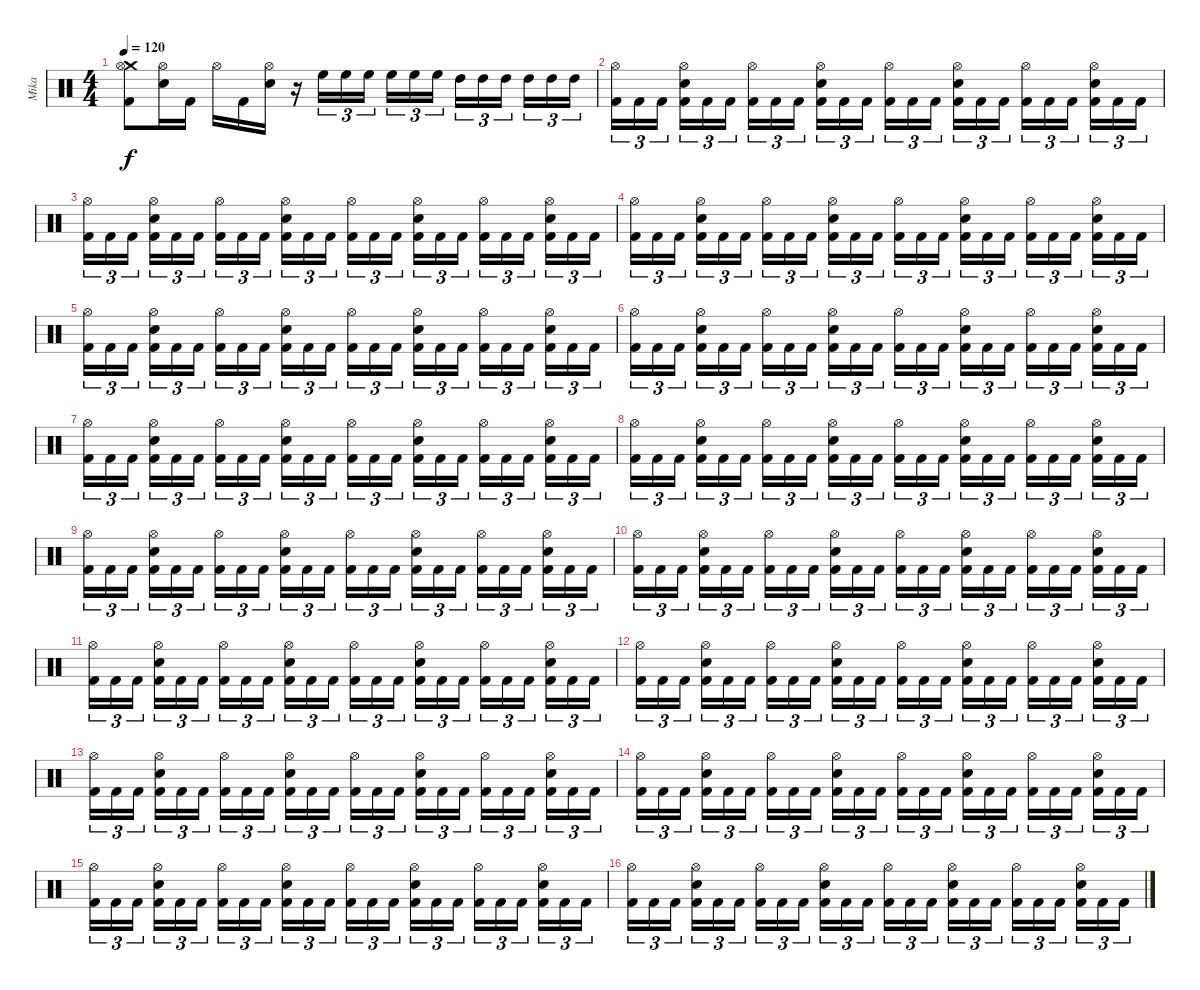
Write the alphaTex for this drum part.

\track ("Mika" "Mika") {instrument percussion}
\staff {score}
\articulation defaults
\ts (4 4)
\tempo 120
\clef neutral
\ks c
("Crash medium (hit)" "Hi-Hat (open)" "Kick (hit) 2").8{dy f} ("Hi-Hat (open)" "Electric Snare (hit)").16 "Kick (hit) 2".16 "Hi-Hat (open)".16 "Kick (hit) 2".16 ("Hi-Hat (open)" "Electric Snare (hit)").16 r.16 "High Floor Tom (hit)".16{tu (3 2)} "High Floor Tom (hit)".16{tu (3 2)} "High Floor Tom (hit)".16{tu (3 2) beam splitsecondary} "High Floor Tom (hit)".16{tu (3 2)} "High Floor Tom (hit)".16{tu (3 2)} "High Floor Tom (hit)".16{tu (3 2)} "High Tom (hit)".16{tu (3 2)} "High Tom (hit)".16{tu (3 2)} "High Tom (hit)".16{tu (3 2) beam splitsecondary} "High Tom (hit)".16{tu (3 2)} "High Tom (hit)".16{tu (3 2)} "High Tom (hit)".16{tu (3 2)} |
("Hi-Hat (open)" "Kick (hit) 2").16{tu (3 2)} "Kick (hit) 2".16{tu (3 2)} "Kick (hit) 2".16{tu (3 2) beam splitsecondary} ("Hi-Hat (open)" "Electric Snare (hit)" "Kick (hit) 2").16{tu (3 2)} "Kick (hit) 2".16{tu (3 2)} "Kick (hit) 2".16{tu (3 2)} ("Hi-Hat (open)" "Kick (hit) 2").16{tu (3 2)} "Kick (hit) 2".16{tu (3 2)} "Kick (hit) 2".16{tu (3 2) beam splitsecondary} ("Hi-Hat (open)" "Electric Snare (hit)" "Kick (hit) 2").16{tu (3 2)} "Kick (hit) 2".16{tu (3 2)} "Kick (hit) 2".16{tu (3 2)} ("Hi-Hat (open)" "Kick (hit) 2").16{tu (3 2)} "Kick (hit) 2".16{tu (3 2)} "Kick (hit) 2".16{tu (3 2) beam splitsecondary} ("Hi-Hat (open)" "Electric Snare (hit)" "Kick (hit) 2").16{tu (3 2)} "Kick (hit) 2".16{tu (3 2)} "Kick (hit) 2".16{tu (3 2)} ("Hi-Hat (open)" "Kick (hit) 2").16{tu (3 2)} "Kick (hit) 2".16{tu (3 2)} "Kick (hit) 2".16{tu (3 2) beam splitsecondary} ("Hi-Hat (open)" "Electric Snare (hit)" "Kick (hit) 2").16{tu (3 2)} "Kick (hit) 2".16{tu (3 2)} "Kick (hit) 2".16{tu (3 2)} |
("Hi-Hat (open)" "Kick (hit) 2").16{tu (3 2)} "Kick (hit) 2".16{tu (3 2)} "Kick (hit) 2".16{tu (3 2) beam splitsecondary} ("Hi-Hat (open)" "Electric Snare (hit)" "Kick (hit) 2").16{tu (3 2)} "Kick (hit) 2".16{tu (3 2)} "Kick (hit) 2".16{tu (3 2)} ("Hi-Hat (open)" "Kick (hit) 2").16{tu (3 2)} "Kick (hit) 2".16{tu (3 2)} "Kick (hit) 2".16{tu (3 2) beam splitsecondary} ("Hi-Hat (open)" "Electric Snare (hit)" "Kick (hit) 2").16{tu (3 2)} "Kick (hit) 2".16{tu (3 2)} "Kick (hit) 2".16{tu (3 2)} ("Hi-Hat (open)" "Kick (hit) 2").16{tu (3 2)} "Kick (hit) 2".16{tu (3 2)} "Kick (hit) 2".16{tu (3 2) beam splitsecondary} ("Hi-Hat (open)" "Electric Snare (hit)" "Kick (hit) 2").16{tu (3 2)} "Kick (hit) 2".16{tu (3 2)} "Kick (hit) 2".16{tu (3 2)} ("Hi-Hat (open)" "Kick (hit) 2").16{tu (3 2)} "Kick (hit) 2".16{tu (3 2)} "Kick (hit) 2".16{tu (3 2) beam splitsecondary} ("Hi-Hat (open)" "Electric Snare (hit)" "Kick (hit) 2").16{tu (3 2)} "Kick (hit) 2".16{tu (3 2)} "Kick (hit) 2".16{tu (3 2)} |
("Hi-Hat (open)" "Kick (hit) 2").16{tu (3 2)} "Kick (hit) 2".16{tu (3 2)} "Kick (hit) 2".16{tu (3 2) beam splitsecondary} ("Hi-Hat (open)" "Electric Snare (hit)" "Kick (hit) 2").16{tu (3 2)} "Kick (hit) 2".16{tu (3 2)} "Kick (hit) 2".16{tu (3 2)} ("Hi-Hat (open)" "Kick (hit) 2").16{tu (3 2)} "Kick (hit) 2".16{tu (3 2)} "Kick (hit) 2".16{tu (3 2) beam splitsecondary} ("Hi-Hat (open)" "Electric Snare (hit)" "Kick (hit) 2").16{tu (3 2)} "Kick (hit) 2".16{tu (3 2)} "Kick (hit) 2".16{tu (3 2)} ("Hi-Hat (open)" "Kick (hit) 2").16{tu (3 2)} "Kick (hit) 2".16{tu (3 2)} "Kick (hit) 2".16{tu (3 2) beam splitsecondary} ("Hi-Hat (open)" "Electric Snare (hit)" "Kick (hit) 2").16{tu (3 2)} "Kick (hit) 2".16{tu (3 2)} "Kick (hit) 2".16{tu (3 2)} ("Hi-Hat (open)" "Kick (hit) 2").16{tu (3 2)} "Kick (hit) 2".16{tu (3 2)} "Kick (hit) 2".16{tu (3 2) beam splitsecondary} ("Hi-Hat (open)" "Electric Snare (hit)" "Kick (hit) 2").16{tu (3 2)} "Kick (hit) 2".16{tu (3 2)} "Kick (hit) 2".16{tu (3 2)} |
("Hi-Hat (open)" "Kick (hit) 2").16{tu (3 2)} "Kick (hit) 2".16{tu (3 2)} "Kick (hit) 2".16{tu (3 2) beam splitsecondary} ("Hi-Hat (open)" "Electric Snare (hit)" "Kick (hit) 2").16{tu (3 2)} "Kick (hit) 2".16{tu (3 2)} "Kick (hit) 2".16{tu (3 2)} ("Hi-Hat (open)" "Kick (hit) 2").16{tu (3 2)} "Kick (hit) 2".16{tu (3 2)} "Kick (hit) 2".16{tu (3 2) beam splitsecondary} ("Hi-Hat (open)" "Electric Snare (hit)" "Kick (hit) 2").16{tu (3 2)} "Kick (hit) 2".16{tu (3 2)} "Kick (hit) 2".16{tu (3 2)} ("Hi-Hat (open)" "Kick (hit) 2").16{tu (3 2)} "Kick (hit) 2".16{tu (3 2)} "Kick (hit) 2".16{tu (3 2) beam splitsecondary} ("Hi-Hat (open)" "Electric Snare (hit)" "Kick (hit) 2").16{tu (3 2)} "Kick (hit) 2".16{tu (3 2)} "Kick (hit) 2".16{tu (3 2)} ("Hi-Hat (open)" "Kick (hit) 2").16{tu (3 2)} "Kick (hit) 2".16{tu (3 2)} "Kick (hit) 2".16{tu (3 2) beam splitsecondary} ("Hi-Hat (open)" "Electric Snare (hit)" "Kick (hit) 2").16{tu (3 2)} "Kick (hit) 2".16{tu (3 2)} "Kick (hit) 2".16{tu (3 2)} |
("Hi-Hat (open)" "Kick (hit) 2").16{tu (3 2)} "Kick (hit) 2".16{tu (3 2)} "Kick (hit) 2".16{tu (3 2) beam splitsecondary} ("Hi-Hat (open)" "Electric Snare (hit)" "Kick (hit) 2").16{tu (3 2)} "Kick (hit) 2".16{tu (3 2)} "Kick (hit) 2".16{tu (3 2)} ("Hi-Hat (open)" "Kick (hit) 2").16{tu (3 2)} "Kick (hit) 2".16{tu (3 2)} "Kick (hit) 2".16{tu (3 2) beam splitsecondary} ("Hi-Hat (open)" "Electric Snare (hit)" "Kick (hit) 2").16{tu (3 2)} "Kick (hit) 2".16{tu (3 2)} "Kick (hit) 2".16{tu (3 2)} ("Hi-Hat (open)" "Kick (hit) 2").16{tu (3 2)} "Kick (hit) 2".16{tu (3 2)} "Kick (hit) 2".16{tu (3 2) beam splitsecondary} ("Hi-Hat (open)" "Electric Snare (hit)" "Kick (hit) 2").16{tu (3 2)} "Kick (hit) 2".16{tu (3 2)} "Kick (hit) 2".16{tu (3 2)} ("Hi-Hat (open)" "Kick (hit) 2").16{tu (3 2)} "Kick (hit) 2".16{tu (3 2)} "Kick (hit) 2".16{tu (3 2) beam splitsecondary} ("Hi-Hat (open)" "Electric Snare (hit)" "Kick (hit) 2").16{tu (3 2)} "Kick (hit) 2".16{tu (3 2)} "Kick (hit) 2".16{tu (3 2)} |
("Hi-Hat (open)" "Kick (hit) 2").16{tu (3 2)} "Kick (hit) 2".16{tu (3 2)} "Kick (hit) 2".16{tu (3 2) beam splitsecondary} ("Hi-Hat (open)" "Electric Snare (hit)" "Kick (hit) 2").16{tu (3 2)} "Kick (hit) 2".16{tu (3 2)} "Kick (hit) 2".16{tu (3 2)} ("Hi-Hat (open)" "Kick (hit) 2").16{tu (3 2)} "Kick (hit) 2".16{tu (3 2)} "Kick (hit) 2".16{tu (3 2) beam splitsecondary} ("Hi-Hat (open)" "Electric Snare (hit)" "Kick (hit) 2").16{tu (3 2)} "Kick (hit) 2".16{tu (3 2)} "Kick (hit) 2".16{tu (3 2)} ("Hi-Hat (open)" "Kick (hit) 2").16{tu (3 2)} "Kick (hit) 2".16{tu (3 2)} "Kick (hit) 2".16{tu (3 2) beam splitsecondary} ("Hi-Hat (open)" "Electric Snare (hit)" "Kick (hit) 2").16{tu (3 2)} "Kick (hit) 2".16{tu (3 2)} "Kick (hit) 2".16{tu (3 2)} ("Hi-Hat (open)" "Kick (hit) 2").16{tu (3 2)} "Kick (hit) 2".16{tu (3 2)} "Kick (hit) 2".16{tu (3 2) beam splitsecondary} ("Hi-Hat (open)" "Electric Snare (hit)" "Kick (hit) 2").16{tu (3 2)} "Kick (hit) 2".16{tu (3 2)} "Kick (hit) 2".16{tu (3 2)} |
("Hi-Hat (open)" "Kick (hit) 2").16{tu (3 2)} "Kick (hit) 2".16{tu (3 2)} "Kick (hit) 2".16{tu (3 2) beam splitsecondary} ("Hi-Hat (open)" "Electric Snare (hit)" "Kick (hit) 2").16{tu (3 2)} "Kick (hit) 2".16{tu (3 2)} "Kick (hit) 2".16{tu (3 2)} ("Hi-Hat (open)" "Kick (hit) 2").16{tu (3 2)} "Kick (hit) 2".16{tu (3 2)} "Kick (hit) 2".16{tu (3 2) beam splitsecondary} ("Hi-Hat (open)" "Electric Snare (hit)" "Kick (hit) 2").16{tu (3 2)} "Kick (hit) 2".16{tu (3 2)} "Kick (hit) 2".16{tu (3 2)} ("Hi-Hat (open)" "Kick (hit) 2").16{tu (3 2)} "Kick (hit) 2".16{tu (3 2)} "Kick (hit) 2".16{tu (3 2) beam splitsecondary} ("Hi-Hat (open)" "Electric Snare (hit)" "Kick (hit) 2").16{tu (3 2)} "Kick (hit) 2".16{tu (3 2)} "Kick (hit) 2".16{tu (3 2)} ("Hi-Hat (open)" "Kick (hit) 2").16{tu (3 2)} "Kick (hit) 2".16{tu (3 2)} "Kick (hit) 2".16{tu (3 2) beam splitsecondary} ("Hi-Hat (open)" "Electric Snare (hit)" "Kick (hit) 2").16{tu (3 2)} "Kick (hit) 2".16{tu (3 2)} "Kick (hit) 2".16{tu (3 2)} |
("Hi-Hat (open)" "Kick (hit) 2").16{tu (3 2)} "Kick (hit) 2".16{tu (3 2)} "Kick (hit) 2".16{tu (3 2) beam splitsecondary} ("Hi-Hat (open)" "Electric Snare (hit)" "Kick (hit) 2").16{tu (3 2)} "Kick (hit) 2".16{tu (3 2)} "Kick (hit) 2".16{tu (3 2)} ("Hi-Hat (open)" "Kick (hit) 2").16{tu (3 2)} "Kick (hit) 2".16{tu (3 2)} "Kick (hit) 2".16{tu (3 2) beam splitsecondary} ("Hi-Hat (open)" "Electric Snare (hit)" "Kick (hit) 2").16{tu (3 2)} "Kick (hit) 2".16{tu (3 2)} "Kick (hit) 2".16{tu (3 2)} ("Hi-Hat (open)" "Kick (hit) 2").16{tu (3 2)} "Kick (hit) 2".16{tu (3 2)} "Kick (hit) 2".16{tu (3 2) beam splitsecondary} ("Hi-Hat (open)" "Electric Snare (hit)" "Kick (hit) 2").16{tu (3 2)} "Kick (hit) 2".16{tu (3 2)} "Kick (hit) 2".16{tu (3 2)} ("Hi-Hat (open)" "Kick (hit) 2").16{tu (3 2)} "Kick (hit) 2".16{tu (3 2)} "Kick (hit) 2".16{tu (3 2) beam splitsecondary} ("Hi-Hat (open)" "Electric Snare (hit)" "Kick (hit) 2").16{tu (3 2)} "Kick (hit) 2".16{tu (3 2)} "Kick (hit) 2".16{tu (3 2)} |
("Hi-Hat (open)" "Kick (hit) 2").16{tu (3 2)} "Kick (hit) 2".16{tu (3 2)} "Kick (hit) 2".16{tu (3 2) beam splitsecondary} ("Hi-Hat (open)" "Electric Snare (hit)" "Kick (hit) 2").16{tu (3 2)} "Kick (hit) 2".16{tu (3 2)} "Kick (hit) 2".16{tu (3 2)} ("Hi-Hat (open)" "Kick (hit) 2").16{tu (3 2)} "Kick (hit) 2".16{tu (3 2)} "Kick (hit) 2".16{tu (3 2) beam splitsecondary} ("Hi-Hat (open)" "Electric Snare (hit)" "Kick (hit) 2").16{tu (3 2)} "Kick (hit) 2".16{tu (3 2)} "Kick (hit) 2".16{tu (3 2)} ("Hi-Hat (open)" "Kick (hit) 2").16{tu (3 2)} "Kick (hit) 2".16{tu (3 2)} "Kick (hit) 2".16{tu (3 2) beam splitsecondary} ("Hi-Hat (open)" "Electric Snare (hit)" "Kick (hit) 2").16{tu (3 2)} "Kick (hit) 2".16{tu (3 2)} "Kick (hit) 2".16{tu (3 2)} ("Hi-Hat (open)" "Kick (hit) 2").16{tu (3 2)} "Kick (hit) 2".16{tu (3 2)} "Kick (hit) 2".16{tu (3 2) beam splitsecondary} ("Hi-Hat (open)" "Electric Snare (hit)" "Kick (hit) 2").16{tu (3 2)} "Kick (hit) 2".16{tu (3 2)} "Kick (hit) 2".16{tu (3 2)} |
("Hi-Hat (open)" "Kick (hit) 2").16{tu (3 2)} "Kick (hit) 2".16{tu (3 2)} "Kick (hit) 2".16{tu (3 2) beam splitsecondary} ("Hi-Hat (open)" "Electric Snare (hit)" "Kick (hit) 2").16{tu (3 2)} "Kick (hit) 2".16{tu (3 2)} "Kick (hit) 2".16{tu (3 2)} ("Hi-Hat (open)" "Kick (hit) 2").16{tu (3 2)} "Kick (hit) 2".16{tu (3 2)} "Kick (hit) 2".16{tu (3 2) beam splitsecondary} ("Hi-Hat (open)" "Electric Snare (hit)" "Kick (hit) 2").16{tu (3 2)} "Kick (hit) 2".16{tu (3 2)} "Kick (hit) 2".16{tu (3 2)} ("Hi-Hat (open)" "Kick (hit) 2").16{tu (3 2)} "Kick (hit) 2".16{tu (3 2)} "Kick (hit) 2".16{tu (3 2) beam splitsecondary} ("Hi-Hat (open)" "Electric Snare (hit)" "Kick (hit) 2").16{tu (3 2)} "Kick (hit) 2".16{tu (3 2)} "Kick (hit) 2".16{tu (3 2)} ("Hi-Hat (open)" "Kick (hit) 2").16{tu (3 2)} "Kick (hit) 2".16{tu (3 2)} "Kick (hit) 2".16{tu (3 2) beam splitsecondary} ("Hi-Hat (open)" "Electric Snare (hit)" "Kick (hit) 2").16{tu (3 2)} "Kick (hit) 2".16{tu (3 2)} "Kick (hit) 2".16{tu (3 2)} |
("Hi-Hat (open)" "Kick (hit) 2").16{tu (3 2)} "Kick (hit) 2".16{tu (3 2)} "Kick (hit) 2".16{tu (3 2) beam splitsecondary} ("Hi-Hat (open)" "Electric Snare (hit)" "Kick (hit) 2").16{tu (3 2)} "Kick (hit) 2".16{tu (3 2)} "Kick (hit) 2".16{tu (3 2)} ("Hi-Hat (open)" "Kick (hit) 2").16{tu (3 2)} "Kick (hit) 2".16{tu (3 2)} "Kick (hit) 2".16{tu (3 2) beam splitsecondary} ("Hi-Hat (open)" "Electric Snare (hit)" "Kick (hit) 2").16{tu (3 2)} "Kick (hit) 2".16{tu (3 2)} "Kick (hit) 2".16{tu (3 2)} ("Hi-Hat (open)" "Kick (hit) 2").16{tu (3 2)} "Kick (hit) 2".16{tu (3 2)} "Kick (hit) 2".16{tu (3 2) beam splitsecondary} ("Hi-Hat (open)" "Electric Snare (hit)" "Kick (hit) 2").16{tu (3 2)} "Kick (hit) 2".16{tu (3 2)} "Kick (hit) 2".16{tu (3 2)} ("Hi-Hat (open)" "Kick (hit) 2").16{tu (3 2)} "Kick (hit) 2".16{tu (3 2)} "Kick (hit) 2".16{tu (3 2) beam splitsecondary} ("Hi-Hat (open)" "Electric Snare (hit)" "Kick (hit) 2").16{tu (3 2)} "Kick (hit) 2".16{tu (3 2)} "Kick (hit) 2".16{tu (3 2)} |
("Hi-Hat (open)" "Kick (hit) 2").16{tu (3 2)} "Kick (hit) 2".16{tu (3 2)} "Kick (hit) 2".16{tu (3 2) beam splitsecondary} ("Hi-Hat (open)" "Electric Snare (hit)" "Kick (hit) 2").16{tu (3 2)} "Kick (hit) 2".16{tu (3 2)} "Kick (hit) 2".16{tu (3 2)} ("Hi-Hat (open)" "Kick (hit) 2").16{tu (3 2)} "Kick (hit) 2".16{tu (3 2)} "Kick (hit) 2".16{tu (3 2) beam splitsecondary} ("Hi-Hat (open)" "Electric Snare (hit)" "Kick (hit) 2").16{tu (3 2)} "Kick (hit) 2".16{tu (3 2)} "Kick (hit) 2".16{tu (3 2)} ("Hi-Hat (open)" "Kick (hit) 2").16{tu (3 2)} "Kick (hit) 2".16{tu (3 2)} "Kick (hit) 2".16{tu (3 2) beam splitsecondary} ("Hi-Hat (open)" "Electric Snare (hit)" "Kick (hit) 2").16{tu (3 2)} "Kick (hit) 2".16{tu (3 2)} "Kick (hit) 2".16{tu (3 2)} ("Hi-Hat (open)" "Kick (hit) 2").16{tu (3 2)} "Kick (hit) 2".16{tu (3 2)} "Kick (hit) 2".16{tu (3 2) beam splitsecondary} ("Hi-Hat (open)" "Electric Snare (hit)" "Kick (hit) 2").16{tu (3 2)} "Kick (hit) 2".16{tu (3 2)} "Kick (hit) 2".16{tu (3 2)} |
("Hi-Hat (open)" "Kick (hit) 2").16{tu (3 2)} "Kick (hit) 2".16{tu (3 2)} "Kick (hit) 2".16{tu (3 2) beam splitsecondary} ("Hi-Hat (open)" "Electric Snare (hit)" "Kick (hit) 2").16{tu (3 2)} "Kick (hit) 2".16{tu (3 2)} "Kick (hit) 2".16{tu (3 2)} ("Hi-Hat (open)" "Kick (hit) 2").16{tu (3 2)} "Kick (hit) 2".16{tu (3 2)} "Kick (hit) 2".16{tu (3 2) beam splitsecondary} ("Hi-Hat (open)" "Electric Snare (hit)" "Kick (hit) 2").16{tu (3 2)} "Kick (hit) 2".16{tu (3 2)} "Kick (hit) 2".16{tu (3 2)} ("Hi-Hat (open)" "Kick (hit) 2").16{tu (3 2)} "Kick (hit) 2".16{tu (3 2)} "Kick (hit) 2".16{tu (3 2) beam splitsecondary} ("Hi-Hat (open)" "Electric Snare (hit)" "Kick (hit) 2").16{tu (3 2)} "Kick (hit) 2".16{tu (3 2)} "Kick (hit) 2".16{tu (3 2)} ("Hi-Hat (open)" "Kick (hit) 2").16{tu (3 2)} "Kick (hit) 2".16{tu (3 2)} "Kick (hit) 2".16{tu (3 2) beam splitsecondary} ("Hi-Hat (open)" "Electric Snare (hit)" "Kick (hit) 2").16{tu (3 2)} "Kick (hit) 2".16{tu (3 2)} "Kick (hit) 2".16{tu (3 2)} |
("Hi-Hat (open)" "Kick (hit) 2").16{tu (3 2)} "Kick (hit) 2".16{tu (3 2)} "Kick (hit) 2".16{tu (3 2) beam splitsecondary} ("Hi-Hat (open)" "Electric Snare (hit)" "Kick (hit) 2").16{tu (3 2)} "Kick (hit) 2".16{tu (3 2)} "Kick (hit) 2".16{tu (3 2)} ("Hi-Hat (open)" "Kick (hit) 2").16{tu (3 2)} "Kick (hit) 2".16{tu (3 2)} "Kick (hit) 2".16{tu (3 2) beam splitsecondary} ("Hi-Hat (open)" "Electric Snare (hit)" "Kick (hit) 2").16{tu (3 2)} "Kick (hit) 2".16{tu (3 2)} "Kick (hit) 2".16{tu (3 2)} ("Hi-Hat (open)" "Kick (hit) 2").16{tu (3 2)} "Kick (hit) 2".16{tu (3 2)} "Kick (hit) 2".16{tu (3 2) beam splitsecondary} ("Hi-Hat (open)" "Electric Snare (hit)" "Kick (hit) 2").16{tu (3 2)} "Kick (hit) 2".16{tu (3 2)} "Kick (hit) 2".16{tu (3 2)} ("Hi-Hat (open)" "Kick (hit) 2").16{tu (3 2)} "Kick (hit) 2".16{tu (3 2)} "Kick (hit) 2".16{tu (3 2) beam splitsecondary} ("Hi-Hat (open)" "Electric Snare (hit)" "Kick (hit) 2").16{tu (3 2)} "Kick (hit) 2".16{tu (3 2)} "Kick (hit) 2".16{tu (3 2)} |
("Hi-Hat (open)" "Kick (hit) 2").16{tu (3 2)} "Kick (hit) 2".16{tu (3 2)} "Kick (hit) 2".16{tu (3 2) beam splitsecondary} ("Hi-Hat (open)" "Electric Snare (hit)" "Kick (hit) 2").16{tu (3 2)} "Kick (hit) 2".16{tu (3 2)} "Kick (hit) 2".16{tu (3 2)} ("Hi-Hat (open)" "Kick (hit) 2").16{tu (3 2)} "Kick (hit) 2".16{tu (3 2)} "Kick (hit) 2".16{tu (3 2) beam splitsecondary} ("Hi-Hat (open)" "Electric Snare (hit)" "Kick (hit) 2").16{tu (3 2)} "Kick (hit) 2".16{tu (3 2)} "Kick (hit) 2".16{tu (3 2)} ("Hi-Hat (open)" "Kick (hit) 2").16{tu (3 2)} "Kick (hit) 2".16{tu (3 2)} "Kick (hit) 2".16{tu (3 2) beam splitsecondary} ("Hi-Hat (open)" "Electric Snare (hit)" "Kick (hit) 2").16{tu (3 2)} "Kick (hit) 2".16{tu (3 2)} "Kick (hit) 2".16{tu (3 2)} ("Hi-Hat (open)" "Kick (hit) 2").16{tu (3 2)} "Kick (hit) 2".16{tu (3 2)} "Kick (hit) 2".16{tu (3 2) beam splitsecondary} ("Hi-Hat (open)" "Electric Snare (hit)" "Kick (hit) 2").16{tu (3 2)} "Kick (hit) 2".16{tu (3 2)} "Kick (hit) 2".16{tu (3 2)}
